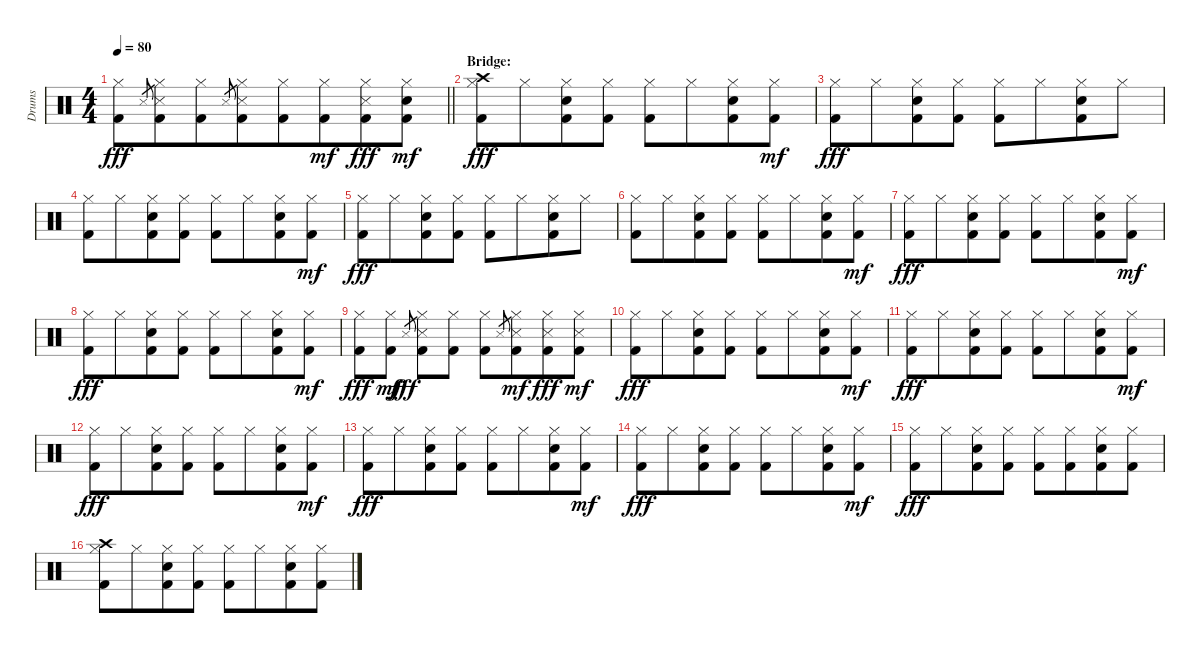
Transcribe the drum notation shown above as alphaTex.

\track ("Drums" "Drums") {instrument percussion}
\staff {score}
\articulation defaults
\ts (4 4)
\tempo 80
\clef neutral
\barLineRight lightlight
\ks c
("Hi-Hat (closed)" "Kick (hit) 2").8{dy fff} "Snare (side stick) 3".8{gr beam merge} ("Hi-Hat (closed)" "Snare (side stick) 3" "Kick (hit) 2").8{beam merge} ("Hi-Hat (closed)" "Kick (hit) 2").8 "Snare (side stick) 3"{h}.8{gr beam merge} ("Hi-Hat (closed)" "Snare (side stick) 3" "Kick (hit) 2").8{beam merge} ("Hi-Hat (closed)" "Kick (hit) 2").8 ("Hi-Hat (closed)" "Kick (hit) 2").8{dy mf beam merge} ("Hi-Hat (closed)" "Snare (side stick) 3" "Kick (hit) 2").8{dy fff} ("Hi-Hat (closed)" "Snare (hit) 2" "Kick (hit) 2").8{dy mf} |
\section ("" "Bridge:")
("Hi-Hat (closed)" "Crash high (hit)" "Kick (hit) 2").8{dy fff} "Hi-Hat (closed)".8{beam merge} ("Hi-Hat (closed)" "Snare (hit) 2" "Kick (hit) 2").8 ("Hi-Hat (closed)" "Kick (hit) 2").8 ("Hi-Hat (closed)" "Kick (hit) 2").8 "Hi-Hat (closed)".8{beam merge} ("Hi-Hat (closed)" "Snare (hit) 2" "Kick (hit) 2").8 ("Hi-Hat (closed)" "Kick (hit) 2").8{dy mf} |
("Hi-Hat (closed)" "Kick (hit) 2").8{dy fff} "Hi-Hat (closed)".8{beam merge} ("Hi-Hat (closed)" "Snare (hit) 2" "Kick (hit) 2").8 ("Hi-Hat (closed)" "Kick (hit) 2").8 ("Hi-Hat (closed)" "Kick (hit) 2").8 "Hi-Hat (closed)".8{beam merge} ("Hi-Hat (closed)" "Snare (hit) 2" "Kick (hit) 2").8 "Hi-Hat (closed)".8 |
("Hi-Hat (closed)" "Kick (hit) 2").8 "Hi-Hat (closed)".8{beam merge} ("Hi-Hat (closed)" "Snare (hit) 2" "Kick (hit) 2").8 ("Hi-Hat (closed)" "Kick (hit) 2").8 ("Hi-Hat (closed)" "Kick (hit) 2").8 "Hi-Hat (closed)".8{beam merge} ("Hi-Hat (closed)" "Snare (hit) 2" "Kick (hit) 2").8 ("Hi-Hat (closed)" "Kick (hit) 2").8{dy mf} |
("Hi-Hat (closed)" "Kick (hit) 2").8{dy fff} "Hi-Hat (closed)".8{beam merge} ("Hi-Hat (closed)" "Snare (hit) 2" "Kick (hit) 2").8 ("Hi-Hat (closed)" "Kick (hit) 2").8 ("Hi-Hat (closed)" "Kick (hit) 2").8 "Hi-Hat (closed)".8{beam merge} ("Hi-Hat (closed)" "Snare (hit) 2" "Kick (hit) 2").8 "Hi-Hat (closed)".8 |
("Hi-Hat (closed)" "Kick (hit) 2").8 "Hi-Hat (closed)".8{beam merge} ("Hi-Hat (closed)" "Snare (hit) 2" "Kick (hit) 2").8 ("Hi-Hat (closed)" "Kick (hit) 2").8 ("Hi-Hat (closed)" "Kick (hit) 2").8 "Hi-Hat (closed)".8{beam merge} ("Hi-Hat (closed)" "Snare (hit) 2" "Kick (hit) 2").8 ("Hi-Hat (closed)" "Kick (hit) 2").8{dy mf} |
("Hi-Hat (closed)" "Kick (hit) 2").8{dy fff} "Hi-Hat (closed)".8{beam merge} ("Hi-Hat (closed)" "Snare (hit) 2" "Kick (hit) 2").8 ("Hi-Hat (closed)" "Kick (hit) 2").8 ("Hi-Hat (closed)" "Kick (hit) 2").8 "Hi-Hat (closed)".8{beam merge} ("Hi-Hat (closed)" "Snare (hit) 2" "Kick (hit) 2").8 ("Hi-Hat (closed)" "Kick (hit) 2").8{dy mf} |
("Hi-Hat (closed)" "Kick (hit) 2").8{dy fff} "Hi-Hat (closed)".8{beam merge} ("Hi-Hat (closed)" "Snare (hit) 2" "Kick (hit) 2").8 ("Hi-Hat (closed)" "Kick (hit) 2").8 ("Hi-Hat (closed)" "Kick (hit) 2").8 "Hi-Hat (closed)".8{beam merge} ("Hi-Hat (closed)" "Snare (hit) 2" "Kick (hit) 2").8 ("Hi-Hat (closed)" "Kick (hit) 2").8{dy mf} |
("Hi-Hat (closed)" "Kick (hit) 2").8{dy fff} ("Hi-Hat (closed)" "Kick (hit) 2").8{dy mf} "Snare (side stick) 3"{h}.8{gr dy fff beam merge} ("Hi-Hat (closed)" "Snare (side stick) 3" "Kick (hit) 2").8 ("Hi-Hat (closed)" "Kick (hit) 2").8 ("Hi-Hat (closed)" "Kick (hit) 2").8 "Snare (side stick) 3"{h}.8{gr} ("Hi-Hat (closed)" "Snare (side stick) 3" "Kick (hit) 2").8{dy mf beam merge} ("Hi-Hat (closed)" "Snare (side stick) 3" "Kick (hit) 2").8{dy fff} ("Hi-Hat (closed)" "Snare (side stick) 3" "Kick (hit) 2").8{dy mf} |
("Hi-Hat (closed)" "Kick (hit) 2").8{dy fff} "Hi-Hat (closed)".8{beam merge} ("Hi-Hat (closed)" "Snare (hit) 2" "Kick (hit) 2").8 ("Hi-Hat (closed)" "Kick (hit) 2").8 ("Hi-Hat (closed)" "Kick (hit) 2").8 "Hi-Hat (closed)".8{beam merge} ("Hi-Hat (closed)" "Snare (hit) 2" "Kick (hit) 2").8 ("Hi-Hat (closed)" "Kick (hit) 2").8{dy mf} |
("Hi-Hat (closed)" "Kick (hit) 2").8{dy fff} "Hi-Hat (closed)".8{beam merge} ("Hi-Hat (closed)" "Snare (hit) 2" "Kick (hit) 2").8 ("Hi-Hat (closed)" "Kick (hit) 2").8 ("Hi-Hat (closed)" "Kick (hit) 2").8 "Hi-Hat (closed)".8{beam merge} ("Hi-Hat (closed)" "Snare (hit) 2" "Kick (hit) 2").8 ("Hi-Hat (closed)" "Kick (hit) 2").8{dy mf} |
("Hi-Hat (closed)" "Kick (hit) 2").8{dy fff} "Hi-Hat (closed)".8{beam merge} ("Hi-Hat (closed)" "Snare (hit) 2" "Kick (hit) 2").8 ("Hi-Hat (closed)" "Kick (hit) 2").8 ("Hi-Hat (closed)" "Kick (hit) 2").8 "Hi-Hat (closed)".8{beam merge} ("Hi-Hat (closed)" "Snare (hit) 2" "Kick (hit) 2").8 ("Hi-Hat (closed)" "Kick (hit) 2").8{dy mf} |
("Hi-Hat (closed)" "Kick (hit) 2").8{dy fff} "Hi-Hat (closed)".8{beam merge} ("Hi-Hat (closed)" "Snare (hit) 2" "Kick (hit) 2").8 ("Hi-Hat (closed)" "Kick (hit) 2").8 ("Hi-Hat (closed)" "Kick (hit) 2").8 "Hi-Hat (closed)".8{beam merge} ("Hi-Hat (closed)" "Snare (hit) 2" "Kick (hit) 2").8 ("Hi-Hat (closed)" "Kick (hit) 2").8{dy mf} |
("Hi-Hat (closed)" "Kick (hit) 2").8{dy fff} "Hi-Hat (closed)".8{beam merge} ("Hi-Hat (closed)" "Snare (hit) 2" "Kick (hit) 2").8 ("Hi-Hat (closed)" "Kick (hit) 2").8 ("Hi-Hat (closed)" "Kick (hit) 2").8 "Hi-Hat (closed)".8{beam merge} ("Hi-Hat (closed)" "Snare (hit) 2" "Kick (hit) 2").8 ("Hi-Hat (closed)" "Kick (hit) 2").8{dy mf} |
("Hi-Hat (closed)" "Kick (hit) 2").8{dy fff} "Hi-Hat (closed)".8{beam merge} ("Hi-Hat (closed)" "Snare (hit) 2" "Kick (hit) 2").8 ("Hi-Hat (closed)" "Kick (hit) 2").8 ("Hi-Hat (closed)" "Kick (hit) 2").8 ("Hi-Hat (closed)" "Kick (hit) 2").8{beam merge} ("Hi-Hat (closed)" "Snare (hit) 2" "Kick (hit) 2").8 ("Hi-Hat (closed)" "Kick (hit) 2").8 |
("Hi-Hat (closed)" "Crash high (hit)" "Kick (hit) 2").8 "Hi-Hat (closed)".8{beam merge} ("Hi-Hat (closed)" "Snare (hit) 2" "Kick (hit) 2").8 ("Hi-Hat (closed)" "Kick (hit) 2").8 ("Hi-Hat (closed)" "Kick (hit) 2").8 "Hi-Hat (closed)".8{beam merge} ("Hi-Hat (closed)" "Snare (hit) 2" "Kick (hit) 2").8 ("Hi-Hat (closed)" "Kick (hit) 2").8
